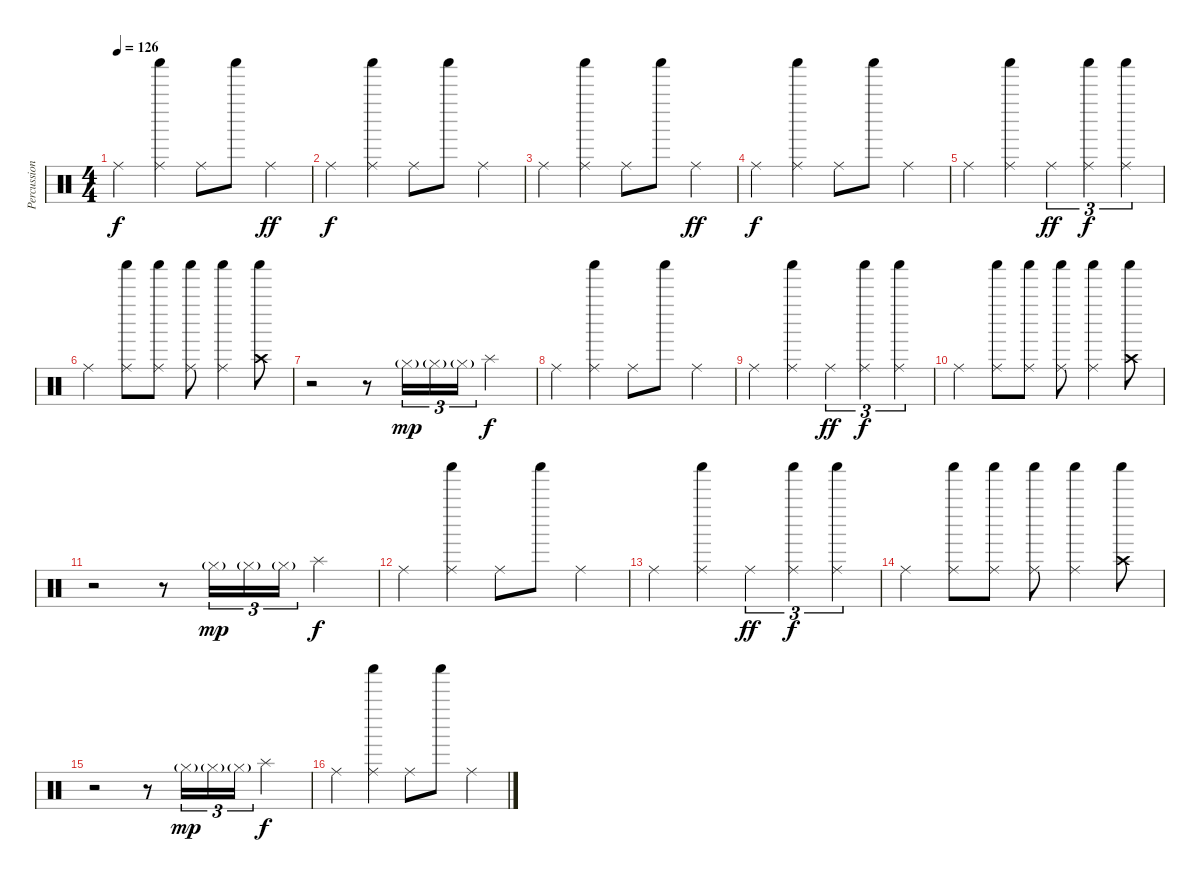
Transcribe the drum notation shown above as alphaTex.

\track ("Percussion" "Percussion") {instrument percussion}
\staff {score}
\articulation defaults
\ts (4 4)
\tempo 126
\clef neutral
\ks c "Ride (middle)".4{dy f}
("Ride (middle)" "Shaker (hit)").4 "Ride (middle)".8 "Shaker (hit)".8 "Ride (middle)".4{dy ff} |
"Ride (middle)".4{dy f} ("Ride (middle)" "Shaker (hit)").4 "Ride (middle)".8 "Shaker (hit)".8 "Ride (middle)".4 |
"Ride (middle)".4 ("Ride (middle)" "Shaker (hit)").4 "Ride (middle)".8 "Shaker (hit)".8 "Ride (middle)".4{dy ff} |
"Ride (middle)".4{dy f} ("Ride (middle)" "Shaker (hit)").4 "Ride (middle)".8 "Shaker (hit)".8 "Ride (middle)".4 |
"Ride (middle)".4 ("Ride (middle)" "Shaker (hit)").4 "Ride (middle)".4{tu (3 2) dy ff} ("Ride (middle)" "Shaker (hit)").4{tu (3 2) dy f} ("Ride (middle)" "Shaker (hit)").4{tu (3 2)} |
"Ride (middle)".4 ("Ride (middle)" "Shaker (hit)").8 ("Ride (middle)" "Shaker (hit)").8 ("Ride (middle)" "Shaker (hit)").8 ("Ride (middle)" "Shaker (hit)").4 ("Crash high (hit)" "Shaker (hit)").8 |
r.2 r.8 "Hi-Hat (closed)"{g}.16{tu (3 2) dy mp} "Hi-Hat (closed)"{g}.16{tu (3 2)} "Hi-Hat (closed)"{g}.16{tu (3 2)} "Splash (hit)".4{dy f} |
"Ride (middle)".4 ("Ride (middle)" "Shaker (hit)").4 "Ride (middle)".8 "Shaker (hit)".8 "Ride (middle)".4 |
"Ride (middle)".4 ("Ride (middle)" "Shaker (hit)").4 "Ride (middle)".4{tu (3 2) dy ff} ("Ride (middle)" "Shaker (hit)").4{tu (3 2) dy f} ("Ride (middle)" "Shaker (hit)").4{tu (3 2)} |
"Ride (middle)".4 ("Ride (middle)" "Shaker (hit)").8 ("Ride (middle)" "Shaker (hit)").8 ("Ride (middle)" "Shaker (hit)").8 ("Ride (middle)" "Shaker (hit)").4 ("Crash high (hit)" "Shaker (hit)").8 |
r.2 r.8 "Hi-Hat (closed)"{g}.16{tu (3 2) dy mp} "Hi-Hat (closed)"{g}.16{tu (3 2)} "Hi-Hat (closed)"{g}.16{tu (3 2)} "Splash (hit)".4{dy f} |
"Ride (middle)".4 ("Ride (middle)" "Shaker (hit)").4 "Ride (middle)".8 "Shaker (hit)".8 "Ride (middle)".4 |
"Ride (middle)".4 ("Ride (middle)" "Shaker (hit)").4 "Ride (middle)".4{tu (3 2) dy ff} ("Ride (middle)" "Shaker (hit)").4{tu (3 2) dy f} ("Ride (middle)" "Shaker (hit)").4{tu (3 2)} |
"Ride (middle)".4 ("Ride (middle)" "Shaker (hit)").8 ("Ride (middle)" "Shaker (hit)").8 ("Ride (middle)" "Shaker (hit)").8 ("Ride (middle)" "Shaker (hit)").4 ("Crash high (hit)" "Shaker (hit)").8 |
r.2 r.8 "Hi-Hat (closed)"{g}.16{tu (3 2) dy mp} "Hi-Hat (closed)"{g}.16{tu (3 2)} "Hi-Hat (closed)"{g}.16{tu (3 2)} "Splash (hit)".4{dy f} |
"Ride (middle)".4 ("Ride (middle)" "Shaker (hit)").4 "Ride (middle)".8 "Shaker (hit)".8 "Ride (middle)".4
